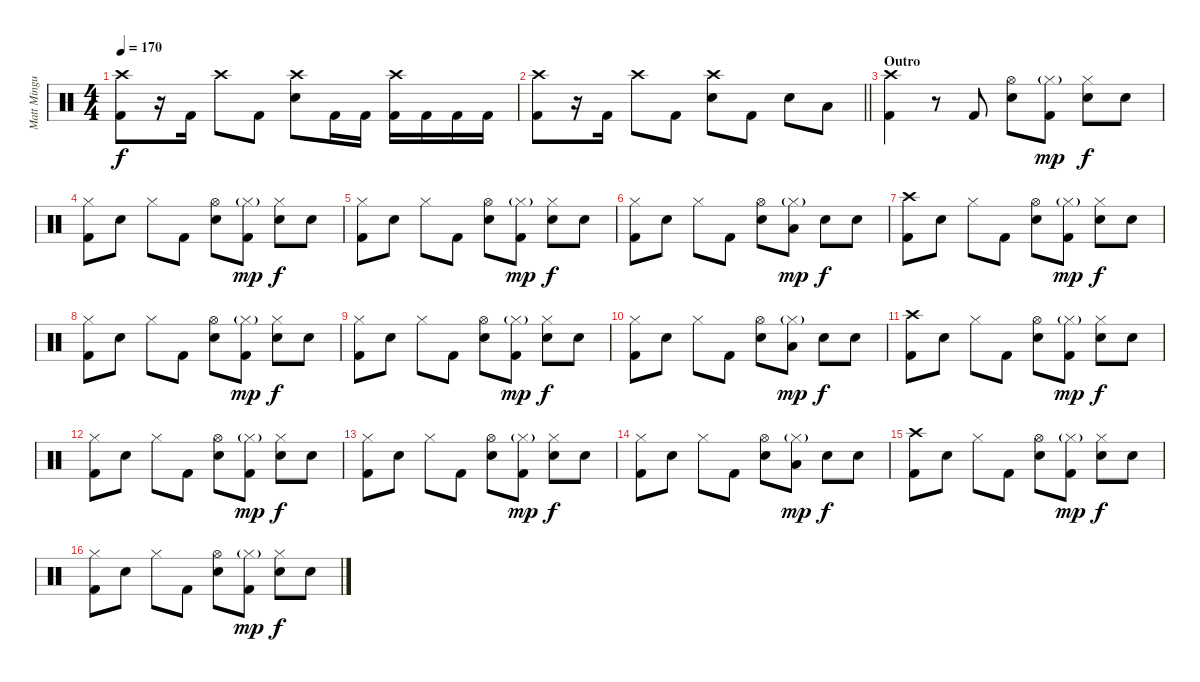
\track ("Matt Mingus" "Matt Mingu") {instrument percussion}
\staff {score}
\articulation defaults
\ts (4 4)
\tempo 170
\clef neutral
\ks c
("Crash high (hit)" "Kick (hit) 2").8{dy f} r.16 "Kick (hit) 2".16 "Crash high (hit)".8 "Kick (hit) 2".8 ("Crash high (hit)" "Electric Snare (hit)").8 "Kick (hit) 2".16 "Kick (hit) 2".16 ("Crash high (hit)" "Kick (hit) 2").16 "Kick (hit) 2".16 "Kick (hit) 2".16 "Kick (hit) 2".16 |
\barLineRight lightlight
("Crash high (hit)" "Kick (hit) 2").8 r.16 "Kick (hit) 2".16 "Crash high (hit)".8 "Kick (hit) 2".8 ("Crash high (hit)" "Electric Snare (hit)").8 "Kick (hit) 2".8 "Electric Snare (hit)".8 "Low Tom (hit)".8 |
\section ("" "Outro")
("Crash high (hit)" "Kick (hit) 2").4 r.8 "Kick (hit) 2".8 ("Hi-Hat (open)" "Electric Snare (hit)").8 ("Hi-Hat (closed)"{g} "Kick (hit) 2").8{dy mp} ("Hi-Hat (closed)" "Electric Snare (hit)").8{dy f} "Electric Snare (hit)".8 |
("Hi-Hat (closed)" "Kick (hit) 2").8 "Electric Snare (hit)".8 "Hi-Hat (closed)".8 "Kick (hit) 2".8 ("Hi-Hat (open)" "Electric Snare (hit)").8 ("Hi-Hat (closed)"{g} "Kick (hit) 2").8{dy mp} ("Hi-Hat (closed)" "Electric Snare (hit)").8{dy f} "Electric Snare (hit)".8 |
("Hi-Hat (closed)" "Kick (hit) 2").8 "Electric Snare (hit)".8 "Hi-Hat (closed)".8 "Kick (hit) 2".8 ("Hi-Hat (open)" "Electric Snare (hit)").8 ("Hi-Hat (closed)"{g} "Kick (hit) 2").8{dy mp} ("Hi-Hat (closed)" "Electric Snare (hit)").8{dy f} "Electric Snare (hit)".8 |
("Hi-Hat (closed)" "Kick (hit) 2").8 "Electric Snare (hit)".8 "Hi-Hat (closed)".8 "Kick (hit) 2".8 ("Hi-Hat (open)" "Electric Snare (hit)").8 ("Hi-Hat (closed)"{g} "Low Tom (hit)").8{dy mp} "Electric Snare (hit)".8{dy f} "Electric Snare (hit)".8 |
("Crash high (hit)" "Kick (hit) 2").8 "Electric Snare (hit)".8 "Hi-Hat (closed)".8 "Kick (hit) 2".8 ("Hi-Hat (open)" "Electric Snare (hit)").8 ("Hi-Hat (closed)"{g} "Kick (hit) 2").8{dy mp} ("Hi-Hat (closed)" "Electric Snare (hit)").8{dy f} "Electric Snare (hit)".8 |
("Hi-Hat (closed)" "Kick (hit) 2").8 "Electric Snare (hit)".8 "Hi-Hat (closed)".8 "Kick (hit) 2".8 ("Hi-Hat (open)" "Electric Snare (hit)").8 ("Hi-Hat (closed)"{g} "Kick (hit) 2").8{dy mp} ("Hi-Hat (closed)" "Electric Snare (hit)").8{dy f} "Electric Snare (hit)".8 |
("Hi-Hat (closed)" "Kick (hit) 2").8 "Electric Snare (hit)".8 "Hi-Hat (closed)".8 "Kick (hit) 2".8 ("Hi-Hat (open)" "Electric Snare (hit)").8 ("Hi-Hat (closed)"{g} "Kick (hit) 2").8{dy mp} ("Hi-Hat (closed)" "Electric Snare (hit)").8{dy f} "Electric Snare (hit)".8 |
("Hi-Hat (closed)" "Kick (hit) 2").8 "Electric Snare (hit)".8 "Hi-Hat (closed)".8 "Kick (hit) 2".8 ("Hi-Hat (open)" "Electric Snare (hit)").8 ("Hi-Hat (closed)"{g} "Low Tom (hit)").8{dy mp} "Electric Snare (hit)".8{dy f} "Electric Snare (hit)".8 |
("Crash high (hit)" "Kick (hit) 2").8 "Electric Snare (hit)".8 "Hi-Hat (closed)".8 "Kick (hit) 2".8 ("Hi-Hat (open)" "Electric Snare (hit)").8 ("Hi-Hat (closed)"{g} "Kick (hit) 2").8{dy mp} ("Hi-Hat (closed)" "Electric Snare (hit)").8{dy f} "Electric Snare (hit)".8 |
("Hi-Hat (closed)" "Kick (hit) 2").8 "Electric Snare (hit)".8 "Hi-Hat (closed)".8 "Kick (hit) 2".8 ("Hi-Hat (open)" "Electric Snare (hit)").8 ("Hi-Hat (closed)"{g} "Kick (hit) 2").8{dy mp} ("Hi-Hat (closed)" "Electric Snare (hit)").8{dy f} "Electric Snare (hit)".8 |
("Hi-Hat (closed)" "Kick (hit) 2").8 "Electric Snare (hit)".8 "Hi-Hat (closed)".8 "Kick (hit) 2".8 ("Hi-Hat (open)" "Electric Snare (hit)").8 ("Hi-Hat (closed)"{g} "Kick (hit) 2").8{dy mp} ("Hi-Hat (closed)" "Electric Snare (hit)").8{dy f} "Electric Snare (hit)".8 |
("Hi-Hat (closed)" "Kick (hit) 2").8 "Electric Snare (hit)".8 "Hi-Hat (closed)".8 "Kick (hit) 2".8 ("Hi-Hat (open)" "Electric Snare (hit)").8 ("Hi-Hat (closed)"{g} "Low Tom (hit)").8{dy mp} "Electric Snare (hit)".8{dy f} "Electric Snare (hit)".8 |
("Crash high (hit)" "Kick (hit) 2").8 "Electric Snare (hit)".8 "Hi-Hat (closed)".8 "Kick (hit) 2".8 ("Hi-Hat (open)" "Electric Snare (hit)").8 ("Hi-Hat (closed)"{g} "Kick (hit) 2").8{dy mp} ("Hi-Hat (closed)" "Electric Snare (hit)").8{dy f} "Electric Snare (hit)".8 |
("Hi-Hat (closed)" "Kick (hit) 2").8 "Electric Snare (hit)".8 "Hi-Hat (closed)".8 "Kick (hit) 2".8 ("Hi-Hat (open)" "Electric Snare (hit)").8 ("Hi-Hat (closed)"{g} "Kick (hit) 2").8{dy mp} ("Hi-Hat (closed)" "Electric Snare (hit)").8{dy f} "Electric Snare (hit)".8
